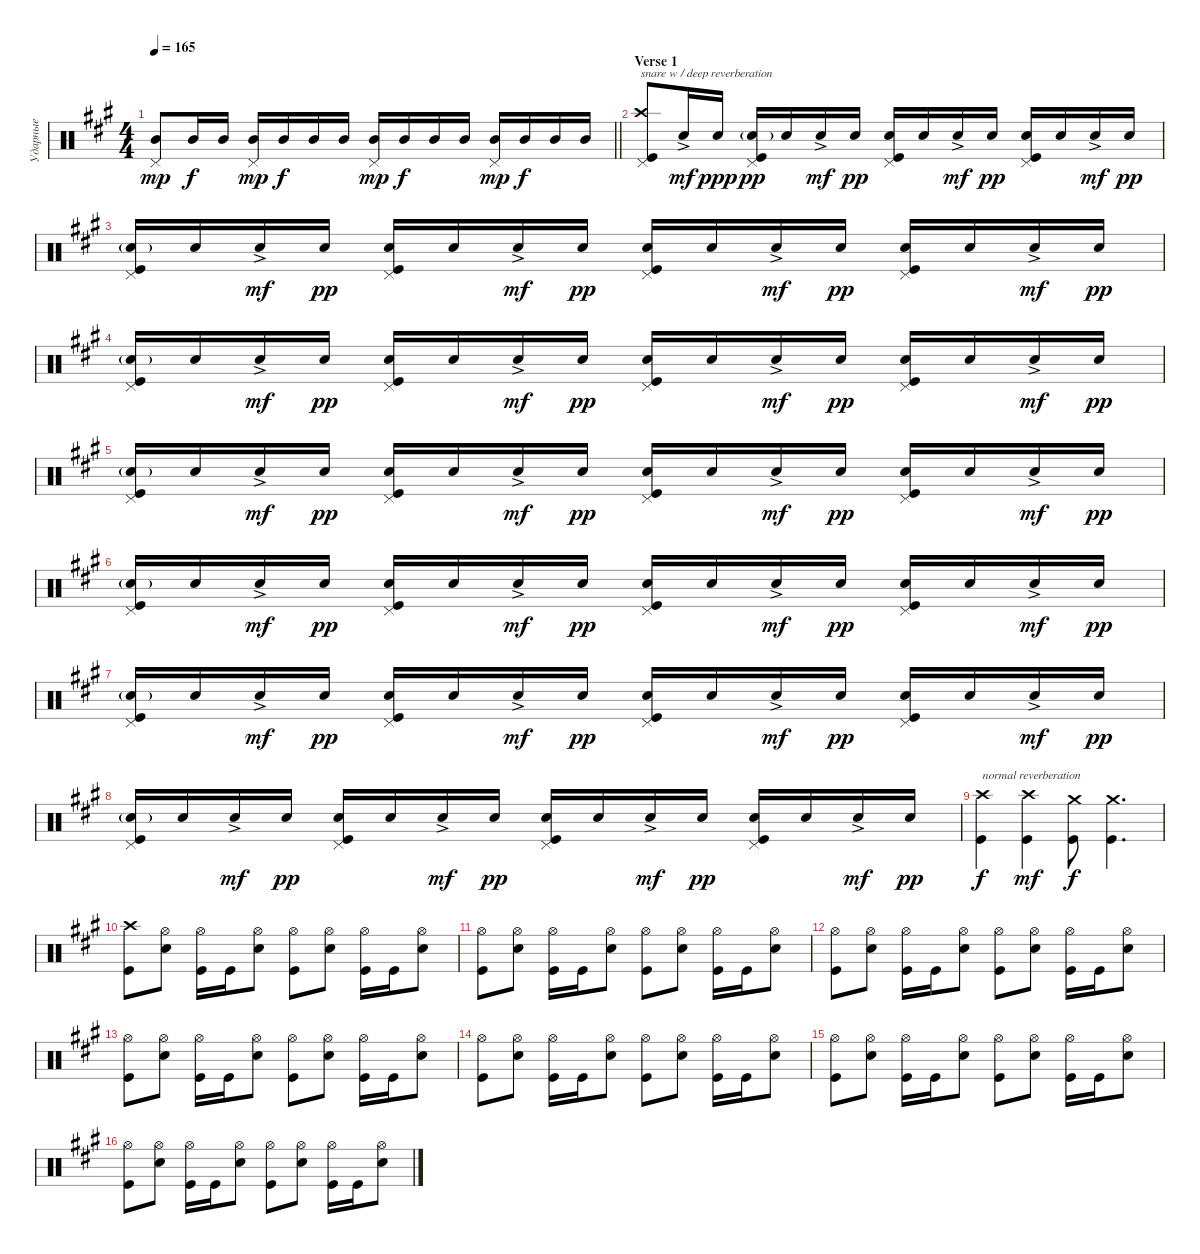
\track ("Ударные" "Ударные") {instrument percussion}
\staff {score}
\articulation defaults
\ts (4 4)
\tempo 165
\clef neutral
\barLineRight lightlight
\ks f#minor
("Mid Tom (hit)" "Pedal Hi-Hat (hit)").8{dy mp} "Mid Tom (hit)".16{dy f} "Mid Tom (hit)".16 ("Pedal Hi-Hat (hit)" "Mid Tom (hit)").16{dy mp} "Mid Tom (hit)".16{dy f} "Mid Tom (hit)".16 "Mid Tom (hit)".16 ("Mid Tom (hit)" "Pedal Hi-Hat (hit)").16{dy mp} "Mid Tom (hit)".16{dy f} "Mid Tom (hit)".16 "Mid Tom (hit)".16 ("Mid Tom (hit)" "Pedal Hi-Hat (hit)").16{dy mp} "Mid Tom (hit)".16{dy f} "Mid Tom (hit)".16 "Mid Tom (hit)".16 |
\section ("" "Verse 1")
("Crash high (hit)" "Kick (hit)" "Pedal Hi-Hat (hit)").8{txt "snare w / deep reverberation"} "Snare (hit) 2"{ac}.16{dy mf} "Snare (hit) 2".16{dy ppp} ("Snare (hit) 2"{g} "Kick (hit)" "Pedal Hi-Hat (hit)").16{dy pp} "Snare (hit) 2".16 "Snare (hit) 2"{ac}.16{dy mf} "Snare (hit) 2".16{dy pp} ("Snare (hit) 2" "Kick (hit)" "Pedal Hi-Hat (hit)").16 "Snare (hit) 2".16 "Snare (hit) 2"{ac}.16{dy mf} "Snare (hit) 2".16{dy pp} ("Snare (hit) 2" "Kick (hit)" "Pedal Hi-Hat (hit)").16 "Snare (hit) 2".16 "Snare (hit) 2"{ac}.16{dy mf} "Snare (hit) 2".16{dy pp} |
("Snare (hit) 2"{g} "Kick (hit)" "Pedal Hi-Hat (hit)").16 "Snare (hit) 2".16 "Snare (hit) 2"{ac}.16{dy mf} "Snare (hit) 2".16{dy pp} ("Snare (hit) 2" "Kick (hit)" "Pedal Hi-Hat (hit)").16 "Snare (hit) 2".16 "Snare (hit) 2"{ac}.16{dy mf} "Snare (hit) 2".16{dy pp} ("Snare (hit) 2" "Kick (hit)" "Pedal Hi-Hat (hit)").16 "Snare (hit) 2".16 "Snare (hit) 2"{ac}.16{dy mf} "Snare (hit) 2".16{dy pp} ("Snare (hit) 2" "Kick (hit)" "Pedal Hi-Hat (hit)").16 "Snare (hit) 2".16 "Snare (hit) 2"{ac}.16{dy mf} "Snare (hit) 2".16{dy pp} |
("Snare (hit) 2"{g} "Kick (hit)" "Pedal Hi-Hat (hit)").16 "Snare (hit) 2".16 "Snare (hit) 2"{ac}.16{dy mf} "Snare (hit) 2".16{dy pp} ("Snare (hit) 2" "Kick (hit)" "Pedal Hi-Hat (hit)").16 "Snare (hit) 2".16 "Snare (hit) 2"{ac}.16{dy mf} "Snare (hit) 2".16{dy pp} ("Snare (hit) 2" "Kick (hit)" "Pedal Hi-Hat (hit)").16 "Snare (hit) 2".16 "Snare (hit) 2"{ac}.16{dy mf} "Snare (hit) 2".16{dy pp} ("Snare (hit) 2" "Kick (hit)" "Pedal Hi-Hat (hit)").16 "Snare (hit) 2".16 "Snare (hit) 2"{ac}.16{dy mf} "Snare (hit) 2".16{dy pp} |
("Snare (hit) 2"{g} "Kick (hit)" "Pedal Hi-Hat (hit)").16 "Snare (hit) 2".16 "Snare (hit) 2"{ac}.16{dy mf} "Snare (hit) 2".16{dy pp} ("Snare (hit) 2" "Kick (hit)" "Pedal Hi-Hat (hit)").16 "Snare (hit) 2".16 "Snare (hit) 2"{ac}.16{dy mf} "Snare (hit) 2".16{dy pp} ("Snare (hit) 2" "Kick (hit)" "Pedal Hi-Hat (hit)").16 "Snare (hit) 2".16 "Snare (hit) 2"{ac}.16{dy mf} "Snare (hit) 2".16{dy pp} ("Snare (hit) 2" "Kick (hit)" "Pedal Hi-Hat (hit)").16 "Snare (hit) 2".16 "Snare (hit) 2"{ac}.16{dy mf} "Snare (hit) 2".16{dy pp} |
("Snare (hit) 2"{g} "Kick (hit)" "Pedal Hi-Hat (hit)").16 "Snare (hit) 2".16 "Snare (hit) 2"{ac}.16{dy mf} "Snare (hit) 2".16{dy pp} ("Snare (hit) 2" "Kick (hit)" "Pedal Hi-Hat (hit)").16 "Snare (hit) 2".16 "Snare (hit) 2"{ac}.16{dy mf} "Snare (hit) 2".16{dy pp} ("Snare (hit) 2" "Kick (hit)" "Pedal Hi-Hat (hit)").16 "Snare (hit) 2".16 "Snare (hit) 2"{ac}.16{dy mf} "Snare (hit) 2".16{dy pp} ("Snare (hit) 2" "Kick (hit)" "Pedal Hi-Hat (hit)").16 "Snare (hit) 2".16 "Snare (hit) 2"{ac}.16{dy mf} "Snare (hit) 2".16{dy pp} |
("Snare (hit) 2"{g} "Kick (hit)" "Pedal Hi-Hat (hit)").16 "Snare (hit) 2".16 "Snare (hit) 2"{ac}.16{dy mf} "Snare (hit) 2".16{dy pp} ("Snare (hit) 2" "Kick (hit)" "Pedal Hi-Hat (hit)").16 "Snare (hit) 2".16 "Snare (hit) 2"{ac}.16{dy mf} "Snare (hit) 2".16{dy pp} ("Snare (hit) 2" "Kick (hit)" "Pedal Hi-Hat (hit)").16 "Snare (hit) 2".16 "Snare (hit) 2"{ac}.16{dy mf} "Snare (hit) 2".16{dy pp} ("Snare (hit) 2" "Kick (hit)" "Pedal Hi-Hat (hit)").16 "Snare (hit) 2".16 "Snare (hit) 2"{ac}.16{dy mf} "Snare (hit) 2".16{dy pp} |
("Snare (hit) 2"{g} "Kick (hit)" "Pedal Hi-Hat (hit)").16 "Snare (hit) 2".16 "Snare (hit) 2"{ac}.16{dy mf} "Snare (hit) 2".16{dy pp} ("Snare (hit) 2" "Kick (hit)" "Pedal Hi-Hat (hit)").16 "Snare (hit) 2".16 "Snare (hit) 2"{ac}.16{dy mf} "Snare (hit) 2".16{dy pp} ("Snare (hit) 2" "Kick (hit)" "Pedal Hi-Hat (hit)").16 "Snare (hit) 2".16 "Snare (hit) 2"{ac}.16{dy mf} "Snare (hit) 2".16{dy pp} ("Snare (hit) 2" "Kick (hit)" "Pedal Hi-Hat (hit)").16 "Snare (hit) 2".16 "Snare (hit) 2"{ac}.16{dy mf} "Snare (hit) 2".16{dy pp} |
("Kick (hit)" "Crash high (hit)").4{txt "normal reverberation" dy f} ("Kick (hit)" "Crash high (hit)").4{dy mf} ("Kick (hit)" "Crash medium (hit)").8{dy f} ("Kick (hit)" "Crash medium (hit)").4{d} |
("Kick (hit)" "Crash high (hit)").8 ("Snare (hit) 2" "Hi-Hat (open)").8 ("Kick (hit)" "Hi-Hat (open)").16 "Kick (hit)".16 ("Snare (hit) 2" "Hi-Hat (open)").8 ("Kick (hit)" "Hi-Hat (open)").8 ("Snare (hit) 2" "Hi-Hat (open)").8 ("Kick (hit)" "Hi-Hat (open)").16 "Kick (hit)".16 ("Snare (hit) 2" "Hi-Hat (open)").8 |
("Kick (hit)" "Hi-Hat (open)").8 ("Snare (hit) 2" "Hi-Hat (open)").8 ("Kick (hit)" "Hi-Hat (open)").16 "Kick (hit)".16 ("Snare (hit) 2" "Hi-Hat (open)").8 ("Kick (hit)" "Hi-Hat (open)").8 ("Snare (hit) 2" "Hi-Hat (open)").8 ("Kick (hit)" "Hi-Hat (open)").16 "Kick (hit)".16 ("Snare (hit) 2" "Hi-Hat (open)").8 |
("Kick (hit)" "Hi-Hat (open)").8 ("Snare (hit) 2" "Hi-Hat (open)").8 ("Kick (hit)" "Hi-Hat (open)").16 "Kick (hit)".16 ("Snare (hit) 2" "Hi-Hat (open)").8 ("Kick (hit)" "Hi-Hat (open)").8 ("Snare (hit) 2" "Hi-Hat (open)").8 ("Kick (hit)" "Hi-Hat (open)").16 "Kick (hit)".16 ("Snare (hit) 2" "Hi-Hat (open)").8 |
("Kick (hit)" "Hi-Hat (open)").8 ("Snare (hit) 2" "Hi-Hat (open)").8 ("Kick (hit)" "Hi-Hat (open)").16 "Kick (hit)".16 ("Snare (hit) 2" "Hi-Hat (open)").8 ("Kick (hit)" "Hi-Hat (open)").8 ("Snare (hit) 2" "Hi-Hat (open)").8 ("Kick (hit)" "Hi-Hat (open)").16 "Kick (hit)".16 ("Snare (hit) 2" "Hi-Hat (open)").8 |
("Kick (hit)" "Hi-Hat (open)").8 ("Snare (hit) 2" "Hi-Hat (open)").8 ("Kick (hit)" "Hi-Hat (open)").16 "Kick (hit)".16 ("Snare (hit) 2" "Hi-Hat (open)").8 ("Kick (hit)" "Hi-Hat (open)").8 ("Snare (hit) 2" "Hi-Hat (open)").8 ("Kick (hit)" "Hi-Hat (open)").16 "Kick (hit)".16 ("Snare (hit) 2" "Hi-Hat (open)").8 |
("Kick (hit)" "Hi-Hat (open)").8 ("Snare (hit) 2" "Hi-Hat (open)").8 ("Kick (hit)" "Hi-Hat (open)").16 "Kick (hit)".16 ("Snare (hit) 2" "Hi-Hat (open)").8 ("Kick (hit)" "Hi-Hat (open)").8 ("Snare (hit) 2" "Hi-Hat (open)").8 ("Kick (hit)" "Hi-Hat (open)").16 "Kick (hit)".16 ("Snare (hit) 2" "Hi-Hat (open)").8 |
("Kick (hit)" "Hi-Hat (open)").8 ("Snare (hit) 2" "Hi-Hat (open)").8 ("Kick (hit)" "Hi-Hat (open)").16 "Kick (hit)".16 ("Snare (hit) 2" "Hi-Hat (open)").8 ("Kick (hit)" "Hi-Hat (open)").8 ("Snare (hit) 2" "Hi-Hat (open)").8 ("Kick (hit)" "Hi-Hat (open)").16 "Kick (hit)".16 ("Snare (hit) 2" "Hi-Hat (open)").8
